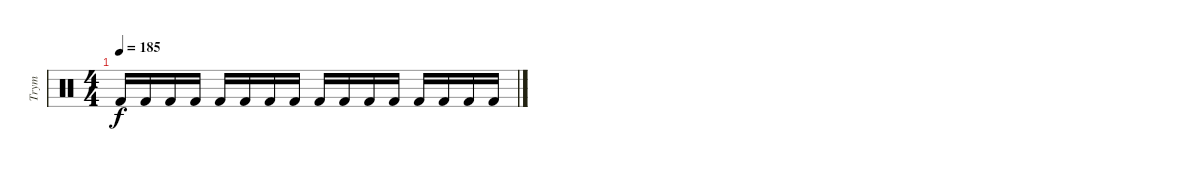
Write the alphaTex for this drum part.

\track ("Trym" "Trym") {instrument percussion}
\staff {score}
\articulation defaults
\ts (4 4)
\tempo 185
\clef neutral
\ks c "Kick (hit) 2".16{dy f} "Kick (hit) 2".16 "Kick (hit) 2".16 "Kick (hit) 2".16 "Kick (hit) 2".16 "Kick (hit) 2".16 "Kick (hit) 2".16 "Kick (hit) 2".16 "Kick (hit) 2".16 "Kick (hit) 2".16 "Kick (hit) 2".16 "Kick (hit) 2".16 "Kick (hit) 2".16 "Kick (hit) 2".16 "Kick (hit) 2".16 "Kick (hit) 2".16
